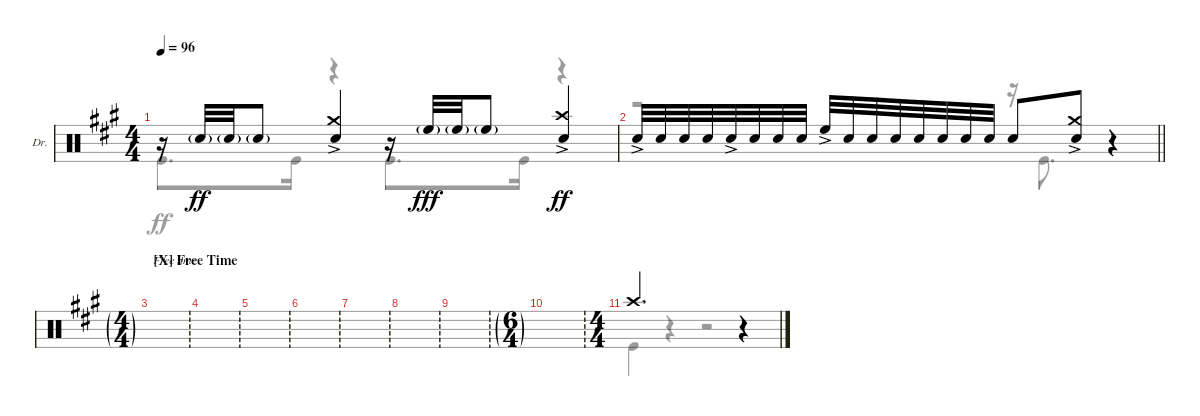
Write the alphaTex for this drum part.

\defaultSystemsLayout 4
\bracketExtendMode groupsimilarinstruments
\firstSystemTrackNameOrientation horizontal
\otherSystemsTrackNameOrientation horizontal
\track ("Drums" "Dr.") {instrument percussion}
\staff {score}
\articulation defaults
\voice
\ts (4 4)
\tempo 96
\clef neutral
\ks a
r.16{dy ff} "Snare (hit) 2"{g}.32 "Snare (hit) 2"{g}.32 "Snare (hit) 2"{g}.8 ("Snare (hit) 2"{ac} "Crash medium (hit)").4 r.16 "High Floor Tom (hit)"{g}.32{dy fff} "High Floor Tom (hit)"{g}.32 "High Floor Tom (hit)"{g}.8 ("Snare (hit) 2"{ac} "Crash high (hit)"{ac}).4{dy ff} |
\barLineRight lightlight "Snare (hit) 2"{ac}.32 "Snare (hit) 2".32 "Snare (hit) 2".32 "Snare (hit) 2".32 "Snare (hit) 2"{ac}.32 "Snare (hit) 2".32 "Snare (hit) 2".32 "Snare (hit) 2".32 "High Floor Tom (hit)"{ac}.32 "Snare (hit) 2".32 "Snare (hit) 2".32 "Snare (hit) 2".32 "Snare (hit) 2".32 "Snare (hit) 2".32 "Snare (hit) 2".32 "Snare (hit) 2".32 "Snare (hit) 2".8
("Snare (hit) 2"{ac} "Crash medium (hit)"{ac}).8 r.4 |
\ft
\section ("X" "Free Time")
|
\ft
|
\ft
|
\ft
|
\ft
|
\ft
|
\ft
|
\ts (6 4)
\ft
|
\ts (4 4)
"Crash high (hit)".2{d} r.4 |
|
|
|
\voice
\clef neutral
\ottava regular
\simile none
\ks a "Kick (hit)".8{d dy ff} "Kick (hit)".16
r.4 "Kick (hit)".8{d} "Kick (hit)".16 r.4 |
\barLineRight lightlight
r.2 r.16 "Kick (hit)".8{d} r.4 |
|
|
|
|
|
|
|
|
"Kick (hit)".4 r.4 r.2 |
|
|
|
